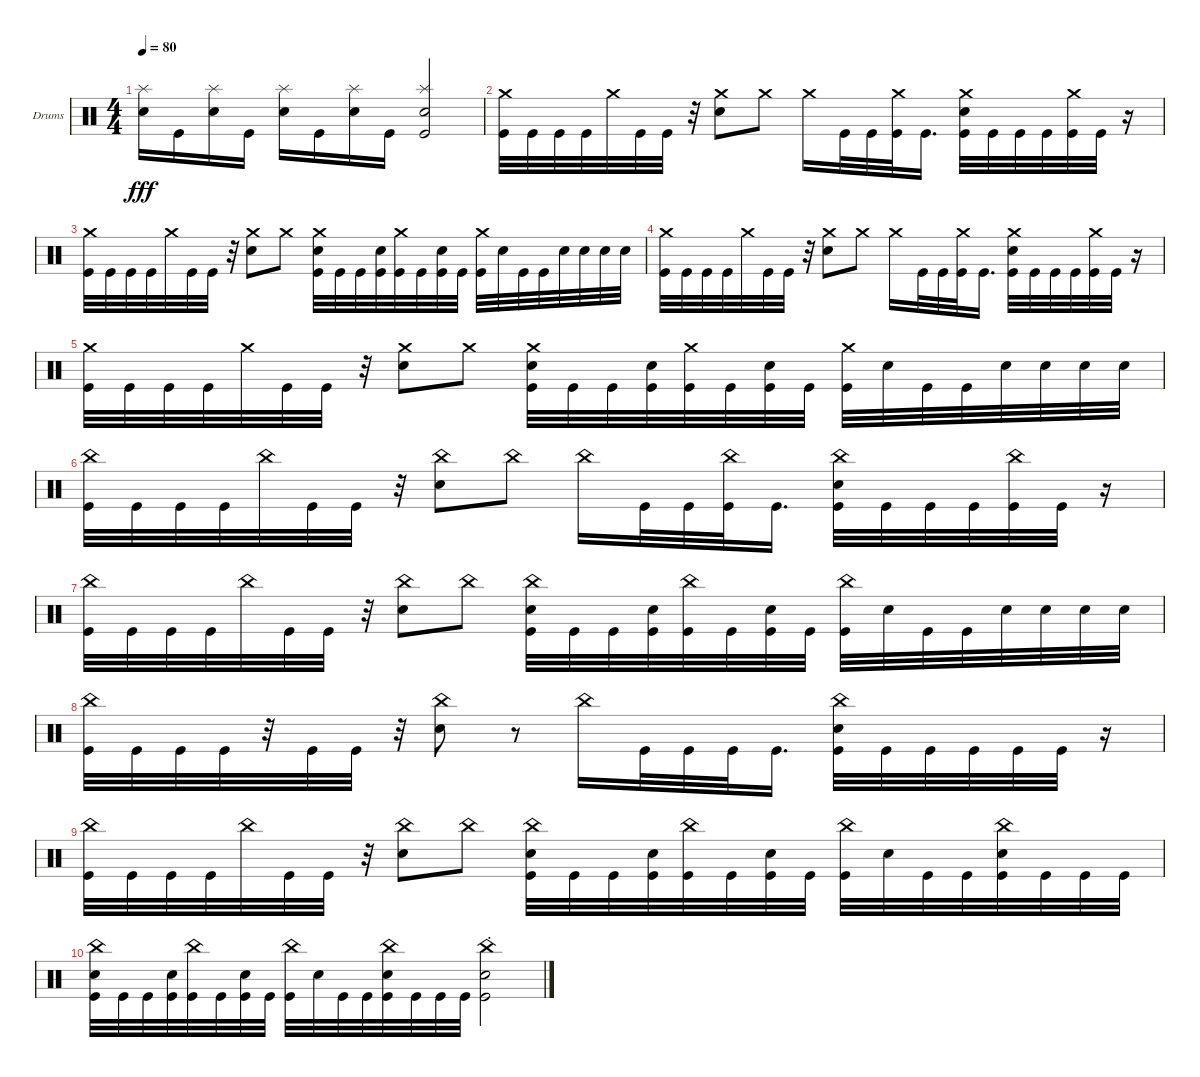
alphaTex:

\defaultSystemsLayout 4
\bracketExtendMode groupsimilarinstruments
\firstSystemTrackNameOrientation horizontal
\otherSystemsTrackNameOrientation horizontal
\track ("Drumkit" "Drums") {instrument percussion}
\staff {score}
\articulation defaults
\ts (4 4)
\tempo 80
\clef neutral
\ks c
("Snare (hit) 2" "Splash (hit)").16{dy fff} "Kick (hit)".16 ("Snare (hit) 2" "Splash (hit)").16 "Kick (hit)".16 ("Snare (hit) 2" "Splash (hit)").16 "Kick (hit)".16 ("Snare (hit) 2" "Splash (hit)").16 "Kick (hit)".16 ("Kick (hit)" "Splash (hit)" "Snare (hit) 2").2 |
("Kick (hit)" "Crash medium (hit)").32 "Kick (hit)".32 "Kick (hit)".32 "Kick (hit)".32 "Crash medium (hit)".32 "Kick (hit)".32 "Kick (hit)".32 r.32 ("Snare (hit) 2" "Crash medium (hit)").8 "Crash medium (hit)".8 "Crash medium (hit)".16 "Kick (hit)".32 "Kick (hit)".32 ("Kick (hit)" "Crash medium (hit)").32 "Kick (hit)".16{d} ("Kick (hit)" "Snare (hit) 2" "Crash medium (hit)").32 "Kick (hit)".32 "Kick (hit)".32 "Kick (hit)".32 ("Kick (hit)" "Crash medium (hit)").32 "Kick (hit)".32 r.16 |
("Kick (hit)" "Crash medium (hit)").32 "Kick (hit)".32 "Kick (hit)".32 "Kick (hit)".32 "Crash medium (hit)".32 "Kick (hit)".32 "Kick (hit)".32 r.32 ("Snare (hit) 2" "Crash medium (hit)").8 "Crash medium (hit)".8 ("Kick (hit)" "Snare (hit) 2" "Crash medium (hit)").32 "Kick (hit)".32 "Kick (hit)".32 ("Kick (hit)" "Snare (hit) 2").32 ("Kick (hit)" "Crash medium (hit)").32 "Kick (hit)".32 ("Kick (hit)" "Snare (hit) 2").32 "Kick (hit)".32 ("Kick (hit)" "Crash medium (hit)").32 "Snare (hit) 2".32 "Kick (hit)".32 "Kick (hit)".32 "Snare (hit) 2".32 "Snare (hit) 2".32 "Snare (hit) 2".32 "Snare (hit) 2".32 |
("Kick (hit)" "Crash medium (hit)").32 "Kick (hit)".32 "Kick (hit)".32 "Kick (hit)".32 "Crash medium (hit)".32 "Kick (hit)".32 "Kick (hit)".32 r.32 ("Snare (hit) 2" "Crash medium (hit)").8 "Crash medium (hit)".8 "Crash medium (hit)".16 "Kick (hit)".32 "Kick (hit)".32 ("Kick (hit)" "Crash medium (hit)").32 "Kick (hit)".16{d} ("Kick (hit)" "Snare (hit) 2" "Crash medium (hit)").32 "Kick (hit)".32 "Kick (hit)".32 "Kick (hit)".32 ("Kick (hit)" "Crash medium (hit)").32 "Kick (hit)".32 r.16 |
("Kick (hit)" "Crash medium (hit)").32 "Kick (hit)".32 "Kick (hit)".32 "Kick (hit)".32 "Crash medium (hit)".32 "Kick (hit)".32 "Kick (hit)".32 r.32 ("Snare (hit) 2" "Crash medium (hit)").8 "Crash medium (hit)".8 ("Kick (hit)" "Snare (hit) 2" "Crash medium (hit)").32 "Kick (hit)".32 "Kick (hit)".32 ("Kick (hit)" "Snare (hit) 2").32 ("Kick (hit)" "Crash medium (hit)").32 "Kick (hit)".32 ("Kick (hit)" "Snare (hit) 2").32 "Kick (hit)".32 ("Kick (hit)" "Crash medium (hit)").32 "Snare (hit) 2".32 "Kick (hit)".32 "Kick (hit)".32 "Snare (hit) 2".32 "Snare (hit) 2".32 "Snare (hit) 2".32 "Snare (hit) 2".32 |
("Kick (hit)" "China (hit)").32 "Kick (hit)".32 "Kick (hit)".32 "Kick (hit)".32 "China (hit)".32 "Kick (hit)".32 "Kick (hit)".32 r.32 ("Snare (hit) 2" "China (hit)").8 "China (hit)".8 "China (hit)".16 "Kick (hit)".32 "Kick (hit)".32 ("Kick (hit)" "China (hit)").32 "Kick (hit)".16{d} ("Kick (hit)" "Snare (hit) 2" "China (hit)").32 "Kick (hit)".32 "Kick (hit)".32 "Kick (hit)".32 ("Kick (hit)" "China (hit)").32 "Kick (hit)".32 r.16 |
("Kick (hit)" "China (hit)").32 "Kick (hit)".32 "Kick (hit)".32 "Kick (hit)".32 "China (hit)".32 "Kick (hit)".32 "Kick (hit)".32 r.32 ("Snare (hit) 2" "China (hit)").8 "China (hit)".8 ("Kick (hit)" "Snare (hit) 2" "China (hit)").32 "Kick (hit)".32 "Kick (hit)".32 ("Kick (hit)" "Snare (hit) 2").32 ("Kick (hit)" "China (hit)").32 "Kick (hit)".32 ("Kick (hit)" "Snare (hit) 2").32 "Kick (hit)".32 ("Kick (hit)" "China (hit)").32 "Snare (hit) 2".32 "Kick (hit)".32 "Kick (hit)".32 "Snare (hit) 2".32 "Snare (hit) 2".32 "Snare (hit) 2".32 "Snare (hit) 2".32 |
("Kick (hit)" "China (hit)").32 "Kick (hit)".32 "Kick (hit)".32 "Kick (hit)".32 r.32 "Kick (hit)".32 "Kick (hit)".32 r.32 ("Snare (hit) 2" "China (hit)").8 r.8 "China (hit)".16 "Kick (hit)".32 "Kick (hit)".32 "Kick (hit)".32 "Kick (hit)".16{d} ("Kick (hit)" "Snare (hit) 2" "China (hit)").32 "Kick (hit)".32 "Kick (hit)".32 "Kick (hit)".32 "Kick (hit)".32 "Kick (hit)".32 r.16 |
("Kick (hit)" "China (hit)").32 "Kick (hit)".32 "Kick (hit)".32 "Kick (hit)".32 "China (hit)".32 "Kick (hit)".32 "Kick (hit)".32 r.32 ("Snare (hit) 2" "China (hit)").8 "China (hit)".8 ("Kick (hit)" "Snare (hit) 2" "China (hit)").32 "Kick (hit)".32 "Kick (hit)".32 ("Kick (hit)" "Snare (hit) 2").32 ("Kick (hit)" "China (hit)").32 "Kick (hit)".32 ("Kick (hit)" "Snare (hit) 2").32 "Kick (hit)".32 ("Kick (hit)" "China (hit)").32 "Snare (hit) 2".32 "Kick (hit)".32 "Kick (hit)".32 ("Snare (hit) 2" "Kick (hit)" "China (hit)").32 "Kick (hit)".32 "Kick (hit)".32 "Kick (hit)".32 |
("Kick (hit)" "Snare (hit) 2" "China (hit)").32 "Kick (hit)".32 "Kick (hit)".32 ("Kick (hit)" "Snare (hit) 2").32 ("Kick (hit)" "China (hit)").32 "Kick (hit)".32 ("Kick (hit)" "Snare (hit) 2").32 "Kick (hit)".32 ("Kick (hit)" "China (hit)").32 "Snare (hit) 2".32 "Kick (hit)".32 "Kick (hit)".32 ("Snare (hit) 2" "Kick (hit)" "China (hit)").32 "Kick (hit)".32 "Kick (hit)".32 "Kick (hit)".32 ("Kick (hit)" "Snare (hit) 2" "China (hit)"{st}).2
